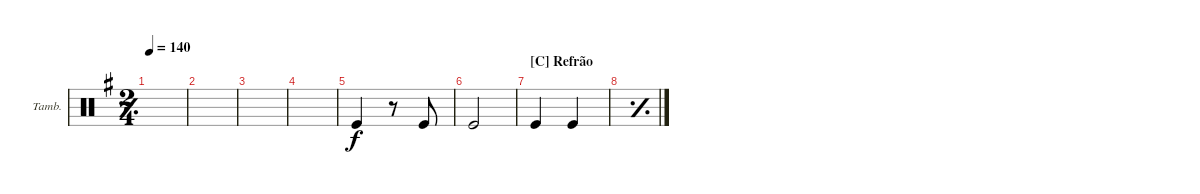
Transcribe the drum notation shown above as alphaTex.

\defaultSystemsLayout 4
\bracketExtendMode groupsimilarinstruments
\firstSystemTrackNameOrientation horizontal
\otherSystemsTrackNameOrientation horizontal
\track ("Tambourine" "Tamb.") {instrument percussion}
\staff {score}
\articulation defaults
\ts (2 4)
\tempo 140
\clef neutral
\simile simple
\ks g
|
|
|
|
\simile none "Kick (hit)".4
r.8 "Kick (hit)".8 |
"Kick (hit)".2 |
\section ("C" "Refrão")
"Kick (hit)".4 "Kick (hit)".4 |
\simile simple
